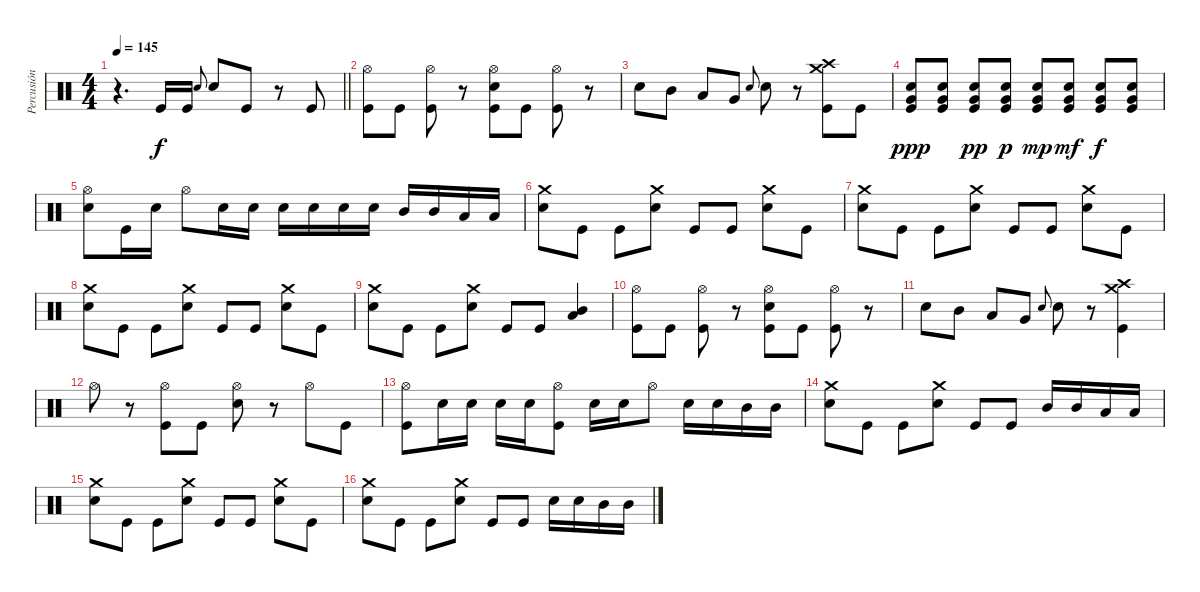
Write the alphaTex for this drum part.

\track ("Percusión" "Percusión") {instrument percussion}
\staff {score}
\articulation defaults
\ts (4 4)
\tempo 145
\clef neutral
\barLineRight lightlight
\ks c
r.4{d dy mp} "Kick (hit)".16{dy f} "Kick (hit)".16 "Snare (hit) 2".8{gr onbeat} "Snare (hit) 2".8 "Kick (hit)".8 r.8 "Kick (hit)".8 |
("Hi-Hat (open)" "Kick (hit)").8 "Kick (hit)".8 ("Hi-Hat (open)" "Kick (hit)").8 r.8 ("Hi-Hat (open)" "Snare (hit) 2" "Kick (hit)").8 "Kick (hit)".8 ("Hi-Hat (open)" "Kick (hit)").8 r.8 |
"Snare (hit) 2".8 "Mid Tom (hit)".8 "Low Tom (hit)".8 "Very Low Tom (hit)".8 "Snare (hit) 2".8{gr onbeat} "Snare (hit) 2".8 r.8 ("Crash medium (hit)" "Crash high (hit)" "Kick (hit)").8 "Kick (hit)".8 |
("Very Low Tom (hit)" "Snare (hit) 2" "Kick (hit)").8{dy ppp} ("Very Low Tom (hit)" "Snare (hit) 2" "Kick (hit)").8 ("Very Low Tom (hit)" "Snare (hit) 2" "Kick (hit)").8{dy pp} ("Very Low Tom (hit)" "Snare (hit) 2" "Kick (hit)").8{dy p} ("Very Low Tom (hit)" "Snare (hit) 2" "Kick (hit)").8{dy mp} ("Very Low Tom (hit)" "Snare (hit) 2" "Kick (hit)").8{dy mf} ("Very Low Tom (hit)" "Snare (hit) 2" "Kick (hit)").8{dy f} ("Very Low Tom (hit)" "Snare (hit) 2" "Kick (hit)").8 |
("Hi-Hat (open)" "Snare (hit) 2").8 "Kick (hit)".16 "Snare (hit) 2".16 "Hi-Hat (open)".8 "Snare (hit) 2".16 "Snare (hit) 2".16 "Snare (hit) 2".16 "Snare (hit) 2".16 "Snare (hit) 2".16 "Snare (hit) 2".16 "Mid Tom (hit)".16 "Mid Tom (hit)".16 "Low Tom (hit)".16 "Low Tom (hit)".16 |
("Crash medium (hit)" "Snare (hit) 2").8 "Kick (hit)".8 "Kick (hit)".8 ("Crash medium (hit)" "Snare (hit) 2").8 "Kick (hit)".8 "Kick (hit)".8 ("Crash medium (hit)" "Snare (hit) 2").8 "Kick (hit)".8 |
("Crash medium (hit)" "Snare (hit) 2").8 "Kick (hit)".8 "Kick (hit)".8 ("Crash medium (hit)" "Snare (hit) 2").8 "Kick (hit)".8 "Kick (hit)".8 ("Crash medium (hit)" "Snare (hit) 2").8 "Kick (hit)".8 |
("Crash medium (hit)" "Snare (hit) 2").8 "Kick (hit)".8 "Kick (hit)".8 ("Crash medium (hit)" "Snare (hit) 2").8 "Kick (hit)".8 "Kick (hit)".8 ("Crash medium (hit)" "Snare (hit) 2").8 "Kick (hit)".8 |
("Crash medium (hit)" "Snare (hit) 2").8 "Kick (hit)".8 "Kick (hit)".8 ("Crash medium (hit)" "Snare (hit) 2").8 "Kick (hit)".8 "Kick (hit)".8 ("Mid Tom (hit)" "Low Tom (hit)").4 |
("Hi-Hat (open)" "Kick (hit)").8 "Kick (hit)".8 ("Hi-Hat (open)" "Kick (hit)").8 r.8 ("Hi-Hat (open)" "Snare (hit) 2" "Kick (hit)").8 "Kick (hit)".8 ("Hi-Hat (open)" "Kick (hit)").8 r.8 |
"Snare (hit) 2".8 "Mid Tom (hit)".8 "Low Tom (hit)".8 "Very Low Tom (hit)".8 "Snare (hit) 2".8{gr onbeat} "Snare (hit) 2".8 r.8 ("Crash medium (hit)" "Crash high (hit)" "Kick (hit)").4 |
"Hi-Hat (open)".8 r.8 ("Hi-Hat (open)" "Kick (hit)").8 "Kick (hit)".8 ("Hi-Hat (open)" "Snare (hit) 2").8 r.8 "Hi-Hat (open)".8 "Kick (hit)".8 |
("Hi-Hat (open)" "Kick (hit)").8 "Snare (hit) 2".16 "Snare (hit) 2".16 "Snare (hit) 2".16 "Snare (hit) 2".16 ("Hi-Hat (open)" "Kick (hit)").8 "Snare (hit) 2".16 "Snare (hit) 2".16 "Hi-Hat (open)".8 "Snare (hit) 2".16 "Snare (hit) 2".16 "Mid Tom (hit)".16 "Mid Tom (hit)".16 |
("Crash medium (hit)" "Snare (hit) 2").8 "Kick (hit)".8 "Kick (hit)".8 ("Crash medium (hit)" "Snare (hit) 2").8 "Kick (hit)".8 "Kick (hit)".8 "Mid Tom (hit)".16 "Mid Tom (hit)".16 "Low Tom (hit)".16 "Low Tom (hit)".16 |
("Crash medium (hit)" "Snare (hit) 2").8 "Kick (hit)".8 "Kick (hit)".8 ("Crash medium (hit)" "Snare (hit) 2").8 "Kick (hit)".8 "Kick (hit)".8 ("Crash medium (hit)" "Snare (hit) 2").8 "Kick (hit)".8 |
("Crash medium (hit)" "Snare (hit) 2").8 "Kick (hit)".8 "Kick (hit)".8 ("Crash medium (hit)" "Snare (hit) 2").8 "Kick (hit)".8 "Kick (hit)".8 "Snare (hit) 2".16 "Snare (hit) 2".16 "Mid Tom (hit)".16 "Mid Tom (hit)".16
